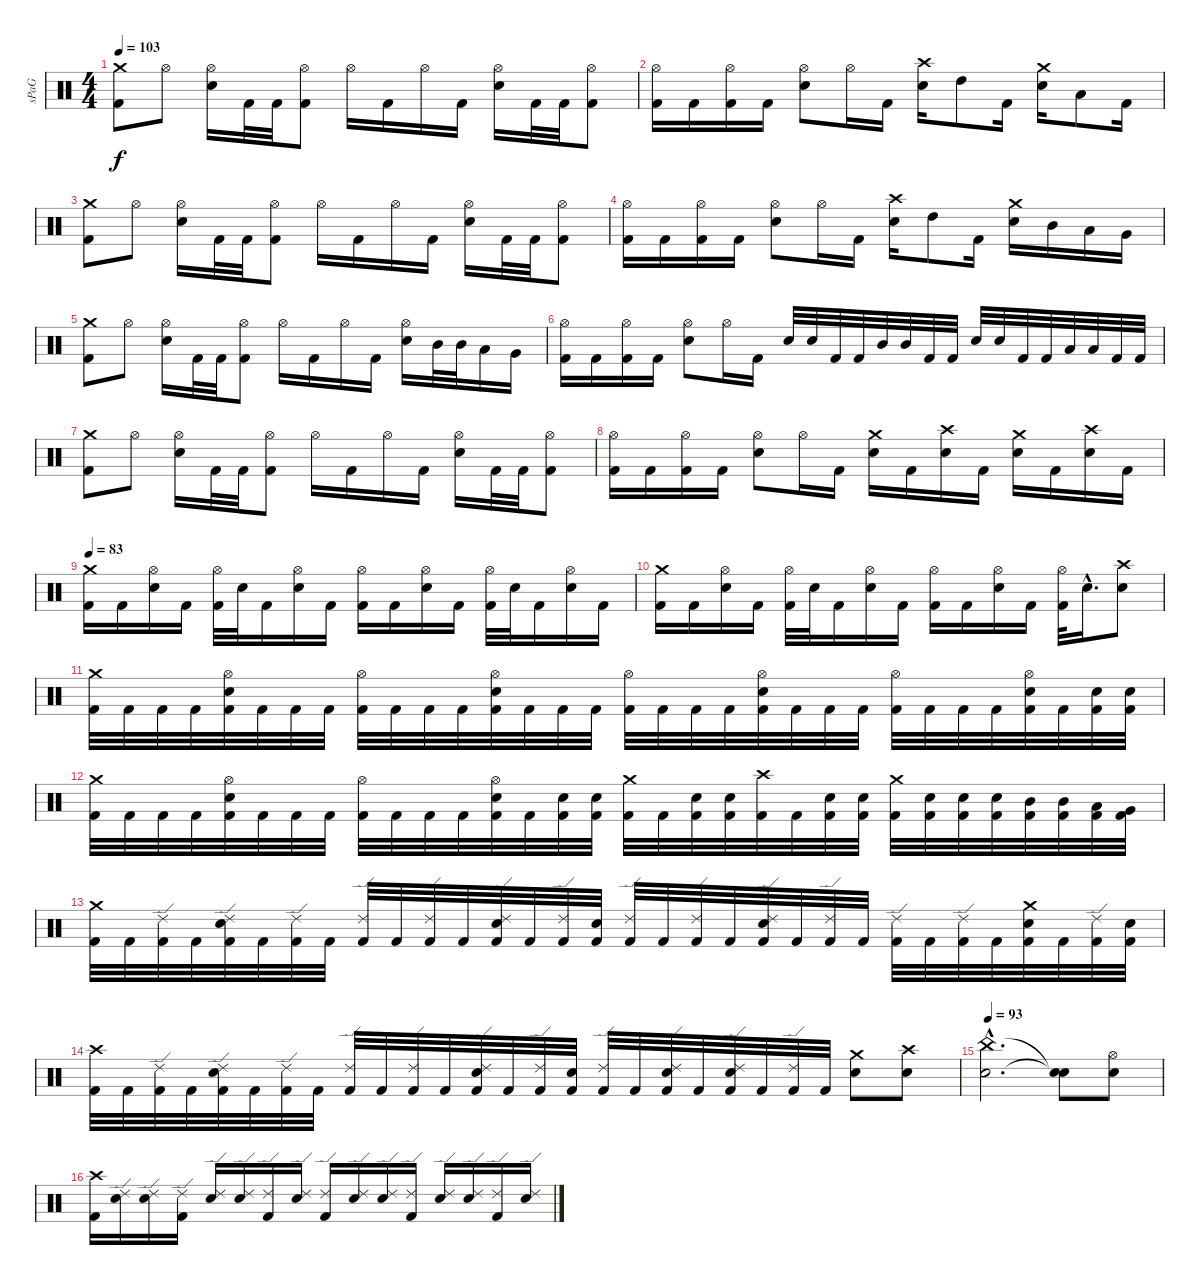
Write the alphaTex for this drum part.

\track ("sPaG" "sPaG") {instrument percussion}
\staff {score}
\articulation defaults
\ts (4 4)
\tempo 103
\clef neutral
\ks c
("Crash medium (hit)" "Kick (hit) 2").8{dy f} "Hi-Hat (open)".8 ("Hi-Hat (open)" "Snare (hit) 2").16 "Kick (hit) 2".32 "Kick (hit) 2".32 ("Hi-Hat (open)" "Kick (hit) 2").8 "Hi-Hat (open)".16 "Kick (hit) 2".16 "Hi-Hat (open)".16 "Kick (hit) 2".16 ("Hi-Hat (open)" "Snare (hit) 2").16 "Kick (hit) 2".32 "Kick (hit) 2".32 ("Hi-Hat (open)" "Kick (hit) 2").8 |
("Hi-Hat (open)" "Kick (hit) 2").16 "Kick (hit) 2".16 ("Hi-Hat (open)" "Kick (hit) 2").16 "Kick (hit) 2".16 ("Hi-Hat (open)" "Snare (hit) 2").8 "Hi-Hat (open)".16 "Kick (hit) 2".16 ("Crash high (hit)" "Snare (hit) 2").16 "High Tom (hit)".8 "Kick (hit) 2".16 ("Crash medium (hit)" "Snare (hit) 2").16 "Low Tom (hit)".8 "Kick (hit) 2".16 |
("Crash medium (hit)" "Kick (hit) 2").8 "Hi-Hat (open)".8 ("Hi-Hat (open)" "Snare (hit) 2").16 "Kick (hit) 2".32 "Kick (hit) 2".32 ("Hi-Hat (open)" "Kick (hit) 2").8 "Hi-Hat (open)".16 "Kick (hit) 2".16 "Hi-Hat (open)".16 "Kick (hit) 2".16 ("Hi-Hat (open)" "Snare (hit) 2").16 "Kick (hit) 2".32 "Kick (hit) 2".32 ("Hi-Hat (open)" "Kick (hit) 2").8 |
("Hi-Hat (open)" "Kick (hit) 2").16 "Kick (hit) 2".16 ("Hi-Hat (open)" "Kick (hit) 2").16 "Kick (hit) 2".16 ("Hi-Hat (open)" "Snare (hit) 2").8 "Hi-Hat (open)".16 "Kick (hit) 2".16 ("Crash high (hit)" "Snare (hit) 2").16 "High Tom (hit)".8 "Kick (hit) 2".16 ("Crash medium (hit)" "Snare (hit) 2").16 "Mid Tom (hit)".16 "Low Tom (hit)".16 "Very Low Tom (hit)".16 |
("Crash medium (hit)" "Kick (hit) 2").8 "Hi-Hat (open)".8 ("Hi-Hat (open)" "Snare (hit) 2").16 "Kick (hit) 2".32 "Kick (hit) 2".32 ("Hi-Hat (open)" "Kick (hit) 2").8 "Hi-Hat (open)".16 "Kick (hit) 2".16 "Hi-Hat (open)".16 "Kick (hit) 2".16 ("Hi-Hat (open)" "Snare (hit) 2").16 "Mid Tom (hit)".32 "Mid Tom (hit)".32 "Low Tom (hit)".16 "Very Low Tom (hit)".16 |
("Hi-Hat (open)" "Kick (hit) 2").16 "Kick (hit) 2".16 ("Hi-Hat (open)" "Kick (hit) 2").16 "Kick (hit) 2".16 ("Hi-Hat (open)" "Snare (hit) 2").8 "Hi-Hat (open)".16 "Kick (hit) 2".16 "Snare (hit) 2".32 "Snare (hit) 2".32 "Kick (hit) 2".32 "Kick (hit) 2".32 "Mid Tom (hit)".32 "Mid Tom (hit)".32 "Kick (hit) 2".32 "Kick (hit) 2".32 "Snare (hit) 2".32 "Snare (hit) 2".32 "Kick (hit) 2".32 "Kick (hit) 2".32 "Low Tom (hit)".32 "Low Tom (hit)".32 "Kick (hit) 2".32 "Kick (hit) 2".32 |
("Crash medium (hit)" "Kick (hit) 2").8 "Hi-Hat (open)".8 ("Hi-Hat (open)" "Snare (hit) 2").16 "Kick (hit) 2".32 "Kick (hit) 2".32 ("Hi-Hat (open)" "Kick (hit) 2").8 "Hi-Hat (open)".16 "Kick (hit) 2".16 "Hi-Hat (open)".16 "Kick (hit) 2".16 ("Hi-Hat (open)" "Snare (hit) 2").16 "Kick (hit) 2".32 "Kick (hit) 2".32 ("Hi-Hat (open)" "Kick (hit) 2").8 |
("Hi-Hat (open)" "Kick (hit) 2").16 "Kick (hit) 2".16 ("Hi-Hat (open)" "Kick (hit) 2").16 "Kick (hit) 2".16 ("Hi-Hat (open)" "Snare (hit) 2").8 "Hi-Hat (open)".16 "Kick (hit) 2".16 ("Crash medium (hit)" "Snare (hit) 2").16 "Kick (hit) 2".16 ("Crash high (hit)" "Snare (hit) 2").16 "Kick (hit) 2".16 ("Crash medium (hit)" "Snare (hit) 2").16 "Kick (hit) 2".16 ("Crash high (hit)" "Snare (hit) 2").16 "Kick (hit) 2".16 |
\tempo 83
("Crash medium (hit)" "Kick (hit) 2").16 "Kick (hit) 2".16 ("Hi-Hat (open)" "Snare (hit) 2").16 "Kick (hit) 2".16 ("Hi-Hat (open)" "Kick (hit) 2").32 "Snare (hit) 2".32 "Kick (hit) 2".16 ("Hi-Hat (open)" "Snare (hit) 2").16 "Kick (hit) 2".16 ("Hi-Hat (open)" "Kick (hit) 2").16 "Kick (hit) 2".16 ("Hi-Hat (open)" "Snare (hit) 2").16 "Kick (hit) 2".16 ("Hi-Hat (open)" "Kick (hit) 2").32 "Snare (hit) 2".32 "Kick (hit) 2".16 ("Hi-Hat (open)" "Snare (hit) 2").16 "Kick (hit) 2".16 |
("Crash medium (hit)" "Kick (hit) 2").16 "Kick (hit) 2".16 ("Hi-Hat (open)" "Snare (hit) 2").16 "Kick (hit) 2".16 ("Hi-Hat (open)" "Kick (hit) 2").32 "Snare (hit) 2".32 "Kick (hit) 2".16 ("Hi-Hat (open)" "Snare (hit) 2").16 "Kick (hit) 2".16 ("Hi-Hat (open)" "Kick (hit) 2").16 "Kick (hit) 2".16 ("Hi-Hat (open)" "Snare (hit) 2").16 "Kick (hit) 2".16 ("Hi-Hat (open)" "Kick (hit) 2").32 "Snare (hit) 2"{hac}.16{d} ("Crash high (hit)" "Snare (hit) 2").8 |
("Crash medium (hit)" "Kick (hit) 2").32 "Kick (hit) 2".32 "Kick (hit) 2".32 "Kick (hit) 2".32 ("Hi-Hat (open)" "Snare (hit) 2" "Kick (hit) 2").32 "Kick (hit) 2".32 "Kick (hit) 2".32 "Kick (hit) 2".32 ("Hi-Hat (open)" "Kick (hit) 2").32 "Kick (hit) 2".32 "Kick (hit) 2".32 "Kick (hit) 2".32 ("Hi-Hat (open)" "Snare (hit) 2" "Kick (hit) 2").32 "Kick (hit) 2".32 "Kick (hit) 2".32 "Kick (hit) 2".32 ("Hi-Hat (open)" "Kick (hit) 2").32 "Kick (hit) 2".32 "Kick (hit) 2".32 "Kick (hit) 2".32 ("Hi-Hat (open)" "Snare (hit) 2" "Kick (hit) 2").32 "Kick (hit) 2".32 "Kick (hit) 2".32 "Kick (hit) 2".32 ("Hi-Hat (open)" "Kick (hit) 2").32 "Kick (hit) 2".32 "Kick (hit) 2".32 "Kick (hit) 2".32 ("Hi-Hat (open)" "Snare (hit) 2" "Kick (hit) 2").32 "Kick (hit) 2".32 ("Snare (hit) 2" "Kick (hit) 2").32 ("Snare (hit) 2" "Kick (hit) 2").32 |
("Crash medium (hit)" "Kick (hit) 2").32 "Kick (hit) 2".32 "Kick (hit) 2".32 "Kick (hit) 2".32 ("Hi-Hat (open)" "Snare (hit) 2" "Kick (hit) 2").32 "Kick (hit) 2".32 "Kick (hit) 2".32 "Kick (hit) 2".32 ("Hi-Hat (open)" "Kick (hit) 2").32 "Kick (hit) 2".32 "Kick (hit) 2".32 "Kick (hit) 2".32 ("Hi-Hat (open)" "Snare (hit) 2" "Kick (hit) 2").32 "Kick (hit) 2".32 ("Snare (hit) 2" "Kick (hit) 2").32 ("Snare (hit) 2" "Kick (hit) 2").32 ("Crash medium (hit)" "Kick (hit) 2").32 "Kick (hit) 2".32 ("Snare (hit) 2" "Kick (hit) 2").32 ("Snare (hit) 2" "Kick (hit) 2").32 ("Crash high (hit)" "Kick (hit) 2").32 "Kick (hit) 2".32 ("Snare (hit) 2" "Kick (hit) 2").32 ("Snare (hit) 2" "Kick (hit) 2").32 ("Crash medium (hit)" "Kick (hit) 2").32 ("Snare (hit) 2" "Kick (hit) 2").32 ("Snare (hit) 2" "Kick (hit) 2").32 ("Snare (hit) 2" "Kick (hit) 2").32 ("Mid Tom (hit)" "Kick (hit) 2").32 ("Mid Tom (hit)" "Kick (hit) 2").32 ("Low Tom (hit)" "Kick (hit) 2").32 ("Very Low Tom (hit)" "Kick (hit) 2").32 |
("Crash medium (hit)" "Kick (hit) 2").32 "Kick (hit) 2".32 ("Ride (edge) 2" "Kick (hit) 2").32 "Kick (hit) 2".32 ("Ride (edge) 2" "Snare (hit) 2" "Kick (hit) 2").32 "Kick (hit) 2".32 ("Ride (edge) 2" "Kick (hit) 2").32 "Kick (hit) 2".32 ("Ride (edge) 2" "Kick (hit) 2").32 "Kick (hit) 2".32 ("Ride (edge) 2" "Kick (hit) 2").32 "Kick (hit) 2".32 ("Ride (edge) 2" "Snare (hit) 2" "Kick (hit) 2").32 "Kick (hit) 2".32 ("Ride (edge) 2" "Kick (hit) 2").32 ("Snare (hit) 2" "Kick (hit) 2").32 ("Ride (edge) 2" "Kick (hit) 2").32 "Kick (hit) 2".32 ("Ride (edge) 2" "Kick (hit) 2").32 "Kick (hit) 2".32 ("Ride (edge) 2" "Snare (hit) 2" "Kick (hit) 2").32 "Kick (hit) 2".32 ("Ride (edge) 2" "Kick (hit) 2").32 "Kick (hit) 2".32 ("Ride (edge) 2" "Kick (hit) 2").32 "Kick (hit) 2".32 ("Ride (edge) 2" "Kick (hit) 2").32 "Kick (hit) 2".32 ("Crash medium (hit)" "Snare (hit) 2" "Kick (hit) 2").32 "Kick (hit) 2".32 ("Ride (edge) 2" "Kick (hit) 2").32 ("Snare (hit) 2" "Kick (hit) 2").32 |
("Crash high (hit)" "Kick (hit) 2").32 "Kick (hit) 2".32 ("Ride (edge) 2" "Kick (hit) 2").32 "Kick (hit) 2".32 ("Ride (edge) 2" "Snare (hit) 2" "Kick (hit) 2").32 "Kick (hit) 2".32 ("Ride (edge) 2" "Kick (hit) 2").32 "Kick (hit) 2".32 ("Ride (edge) 2" "Kick (hit) 2").32 "Kick (hit) 2".32 ("Ride (edge) 2" "Kick (hit) 2").32 "Kick (hit) 2".32 ("Ride (edge) 2" "Snare (hit) 2" "Kick (hit) 2").32 "Kick (hit) 2".32 ("Ride (edge) 2" "Kick (hit) 2").32 ("Snare (hit) 2" "Kick (hit) 2").32 ("Ride (edge) 2" "Kick (hit) 2").32 "Kick (hit) 2".32 ("Ride (edge) 2" "Snare (hit) 2" "Kick (hit) 2").32 "Kick (hit) 2".32 ("Ride (edge) 2" "Snare (hit) 2" "Kick (hit) 2").32 "Kick (hit) 2".32 ("Ride (edge) 2" "Kick (hit) 2").32 "Kick (hit) 2".32 ("Crash medium (hit)" "Snare (hit) 2").8 ("Crash high (hit)" "Snare (hit) 2").8 |
\tempo 93
("China (hit)"{hac} "Snare (hit) 2"{hac}).2{d} ("Snare (hit)"{t} "Snare (hit)"{t}).8 ("Hi-Hat (open)" "Snare (hit) 2").8 |
("Crash high (hit)" "Kick (hit) 2").16 ("Ride (edge) 2" "Snare (hit) 2").16 ("Ride (edge) 2" "Snare (hit) 2").16 ("Ride (edge) 2" "Kick (hit) 2").16 ("Ride (edge) 2" "Snare (hit) 2").16 ("Ride (edge) 2" "Snare (hit) 2").16 ("Ride (edge) 2" "Kick (hit) 2").16 ("Ride (edge) 2" "Snare (hit) 2").16 ("Ride (edge) 2" "Kick (hit) 2").16 ("Ride (edge) 2" "Snare (hit) 2").16 ("Ride (edge) 2" "Snare (hit) 2").16 ("Ride (edge) 2" "Kick (hit) 2").16 ("Ride (edge) 2" "Snare (hit) 2").16 ("Ride (edge) 2" "Snare (hit) 2").16 ("Ride (edge) 2" "Kick (hit) 2").16 ("Ride (edge) 2" "Snare (hit) 2").16
